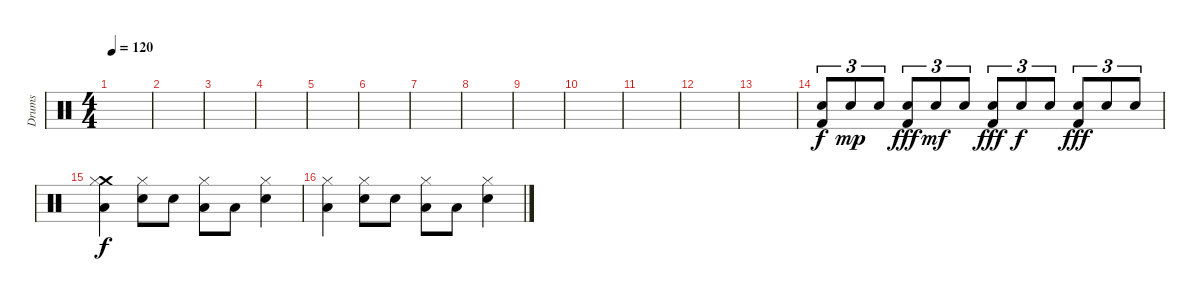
\track ("Drums" "Drums") {instrument percussion}
\staff {score}
\articulation defaults
\ts (4 4)
\tempo 120
\clef neutral
\ks c
|
|
|
|
|
|
|
|
|
|
|
|
|
("Electric Snare (hit)" "Kick (hit) 2").8{tu (3 2)} "Electric Snare (hit)".8{tu (3 2) dy mp} "Electric Snare (hit)".8{tu (3 2)} ("Electric Snare (hit)" "Kick (hit) 2").8{tu (3 2) dy fff} "Electric Snare (hit)".8{tu (3 2) dy mf} "Electric Snare (hit)".8{tu (3 2)} ("Electric Snare (hit)" "Kick (hit) 2").8{tu (3 2) dy fff} "Electric Snare (hit)".8{tu (3 2) dy f} "Electric Snare (hit)".8{tu (3 2)} ("Electric Snare (hit)" "Kick (hit) 2").8{tu (3 2) dy fff} "Electric Snare (hit)".8{tu (3 2)} "Electric Snare (hit)".8{tu (3 2)} |
("Crash medium (hit)" "Hi-Hat (closed)" "Low Floor Tom (hit)").4{dy f} ("Hi-Hat (closed)" "Electric Snare (hit)").8 "Electric Snare (hit)".8 ("Hi-Hat (closed)" "Low Floor Tom (hit)").8 "Low Floor Tom (hit)".8 ("Hi-Hat (closed)" "Electric Snare (hit)").4 |
("Hi-Hat (closed)" "Low Floor Tom (hit)").4 ("Hi-Hat (closed)" "Electric Snare (hit)").8 "Electric Snare (hit)".8 ("Hi-Hat (closed)" "Low Floor Tom (hit)").8 "Low Floor Tom (hit)".8 ("Hi-Hat (closed)" "Electric Snare (hit)").4
